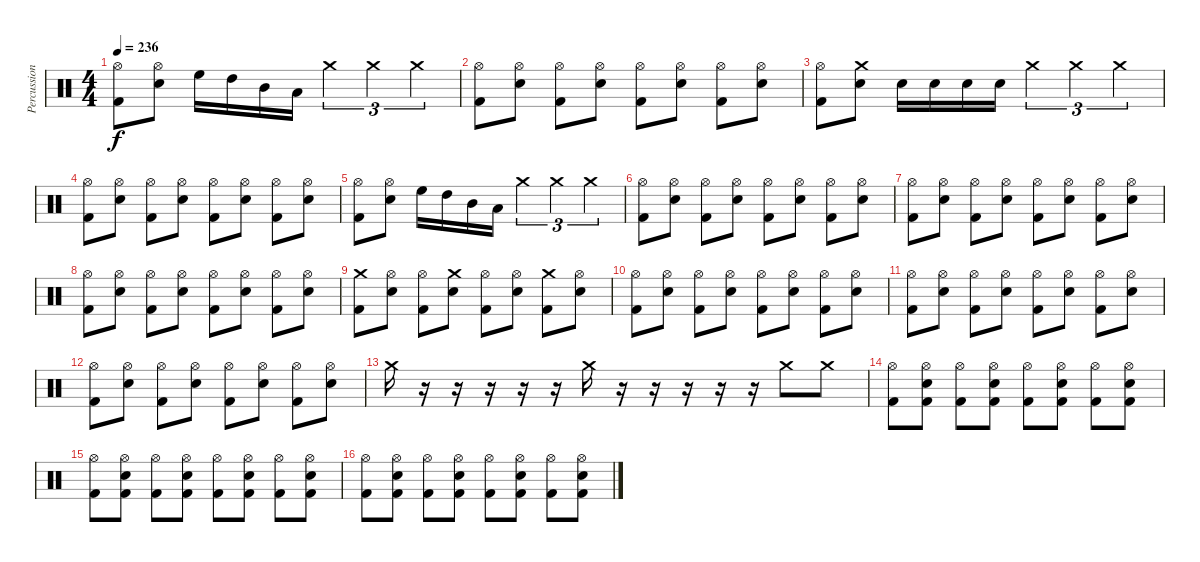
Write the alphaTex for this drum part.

\track ("Percussion" "Percussion") {instrument percussion}
\staff {score}
\articulation defaults
\ts (4 4)
\tempo 236
\clef neutral
\ks c
("Hi-Hat (open)" "Kick (hit) 2").8{dy f} ("Hi-Hat (open)" "Snare (hit) 2").8 "High Floor Tom (hit)".16 "High Tom (hit)".16 "Mid Tom (hit)".16 "Low Tom (hit)".16 "Crash medium (hit)".4{tu (3 2)} "Crash medium (hit)".4{tu (3 2)} "Crash medium (hit)".4{tu (3 2)} |
("Hi-Hat (open)" "Kick (hit) 2").8 ("Hi-Hat (open)" "Snare (hit) 2").8 ("Hi-Hat (open)" "Kick (hit) 2").8 ("Hi-Hat (open)" "Snare (hit) 2").8 ("Hi-Hat (open)" "Kick (hit) 2").8 ("Hi-Hat (open)" "Snare (hit) 2").8 ("Hi-Hat (open)" "Kick (hit) 2").8 ("Hi-Hat (open)" "Snare (hit) 2").8 |
("Hi-Hat (open)" "Kick (hit) 2").8 ("Crash medium (hit)" "Snare (hit) 2").8 "Snare (hit) 2".16 "Snare (hit) 2".16 "Snare (hit) 2".16 "Snare (hit) 2".16 "Crash medium (hit)".4{tu (3 2)} "Crash medium (hit)".4{tu (3 2)} "Crash medium (hit)".4{tu (3 2)} |
("Hi-Hat (open)" "Kick (hit) 2").8 ("Hi-Hat (open)" "Snare (hit) 2").8 ("Hi-Hat (open)" "Kick (hit) 2").8 ("Hi-Hat (open)" "Snare (hit) 2").8 ("Hi-Hat (open)" "Kick (hit) 2").8 ("Hi-Hat (open)" "Snare (hit) 2").8 ("Hi-Hat (open)" "Kick (hit) 2").8 ("Hi-Hat (open)" "Snare (hit) 2").8 |
("Hi-Hat (open)" "Kick (hit) 2").8 ("Hi-Hat (open)" "Snare (hit) 2").8 "High Floor Tom (hit)".16 "High Tom (hit)".16 "Mid Tom (hit)".16 "Low Tom (hit)".16 "Crash medium (hit)".4{tu (3 2)} "Crash medium (hit)".4{tu (3 2)} "Crash medium (hit)".4{tu (3 2)} |
("Hi-Hat (open)" "Kick (hit) 2").8 ("Hi-Hat (open)" "Snare (hit) 2").8 ("Hi-Hat (open)" "Kick (hit) 2").8 ("Hi-Hat (open)" "Snare (hit) 2").8 ("Hi-Hat (open)" "Kick (hit) 2").8 ("Hi-Hat (open)" "Snare (hit) 2").8 ("Hi-Hat (open)" "Kick (hit) 2").8 ("Hi-Hat (open)" "Snare (hit) 2").8 |
("Hi-Hat (open)" "Kick (hit) 2").8 ("Hi-Hat (open)" "Snare (hit) 2").8 ("Hi-Hat (open)" "Kick (hit) 2").8 ("Hi-Hat (open)" "Snare (hit) 2").8 ("Hi-Hat (open)" "Kick (hit) 2").8 ("Hi-Hat (open)" "Snare (hit) 2").8 ("Hi-Hat (open)" "Kick (hit) 2").8 ("Hi-Hat (open)" "Snare (hit) 2").8 |
("Hi-Hat (open)" "Kick (hit) 2").8 ("Hi-Hat (open)" "Snare (hit) 2").8 ("Hi-Hat (open)" "Kick (hit) 2").8 ("Hi-Hat (open)" "Snare (hit) 2").8 ("Hi-Hat (open)" "Kick (hit) 2").8 ("Hi-Hat (open)" "Snare (hit) 2").8 ("Hi-Hat (open)" "Kick (hit) 2").8 ("Hi-Hat (open)" "Snare (hit) 2").8 |
("Crash medium (hit)" "Kick (hit) 2").8 ("Hi-Hat (open)" "Snare (hit) 2").8 ("Hi-Hat (open)" "Kick (hit) 2").8 ("Crash medium (hit)" "Snare (hit) 2").8 ("Hi-Hat (open)" "Kick (hit) 2").8 ("Hi-Hat (open)" "Snare (hit) 2").8 ("Crash medium (hit)" "Kick (hit) 2").8 ("Hi-Hat (open)" "Snare (hit) 2").8 |
("Hi-Hat (open)" "Kick (hit) 2").8 ("Hi-Hat (open)" "Snare (hit) 2").8 ("Hi-Hat (open)" "Kick (hit) 2").8 ("Hi-Hat (open)" "Snare (hit) 2").8 ("Hi-Hat (open)" "Kick (hit) 2").8 ("Hi-Hat (open)" "Snare (hit) 2").8 ("Hi-Hat (open)" "Kick (hit) 2").8 ("Hi-Hat (open)" "Snare (hit) 2").8 |
("Hi-Hat (open)" "Kick (hit) 2").8 ("Hi-Hat (open)" "Snare (hit) 2").8 ("Hi-Hat (open)" "Kick (hit) 2").8 ("Hi-Hat (open)" "Snare (hit) 2").8 ("Hi-Hat (open)" "Kick (hit) 2").8 ("Hi-Hat (open)" "Snare (hit) 2").8 ("Hi-Hat (open)" "Kick (hit) 2").8 ("Hi-Hat (open)" "Snare (hit) 2").8 |
("Hi-Hat (open)" "Kick (hit) 2").8 ("Hi-Hat (open)" "Snare (hit) 2").8 ("Hi-Hat (open)" "Kick (hit) 2").8 ("Hi-Hat (open)" "Snare (hit) 2").8 ("Hi-Hat (open)" "Kick (hit) 2").8 ("Hi-Hat (open)" "Snare (hit) 2").8 ("Hi-Hat (open)" "Kick (hit) 2").8 ("Hi-Hat (open)" "Snare (hit) 2").8 |
"Crash medium (hit)".16 r.16 r.16 r.16 r.16 r.16 "Crash medium (hit)".16 r.16 r.16 r.16 r.16 r.16 "Crash medium (hit)".8 "Crash medium (hit)".8 |
("Hi-Hat (open)" "Kick (hit) 2").8 ("Hi-Hat (open)" "Snare (hit) 2" "Kick (hit) 2").8 ("Hi-Hat (open)" "Kick (hit) 2").8 ("Hi-Hat (open)" "Snare (hit) 2" "Kick (hit) 2").8 ("Hi-Hat (open)" "Kick (hit) 2").8 ("Hi-Hat (open)" "Snare (hit) 2" "Kick (hit) 2").8 ("Hi-Hat (open)" "Kick (hit) 2").8 ("Hi-Hat (open)" "Snare (hit) 2" "Kick (hit) 2").8 |
("Hi-Hat (open)" "Kick (hit) 2").8 ("Hi-Hat (open)" "Snare (hit) 2" "Kick (hit) 2").8 ("Hi-Hat (open)" "Kick (hit) 2").8 ("Hi-Hat (open)" "Snare (hit) 2" "Kick (hit) 2").8 ("Hi-Hat (open)" "Kick (hit) 2").8 ("Hi-Hat (open)" "Snare (hit) 2" "Kick (hit) 2").8 ("Hi-Hat (open)" "Kick (hit) 2").8 ("Hi-Hat (open)" "Snare (hit) 2" "Kick (hit) 2").8 |
("Hi-Hat (open)" "Kick (hit) 2").8 ("Hi-Hat (open)" "Snare (hit) 2" "Kick (hit) 2").8 ("Hi-Hat (open)" "Kick (hit) 2").8 ("Hi-Hat (open)" "Snare (hit) 2" "Kick (hit) 2").8 ("Hi-Hat (open)" "Kick (hit) 2").8 ("Hi-Hat (open)" "Snare (hit) 2" "Kick (hit) 2").8 ("Hi-Hat (open)" "Kick (hit) 2").8 ("Hi-Hat (open)" "Snare (hit) 2" "Kick (hit) 2").8
